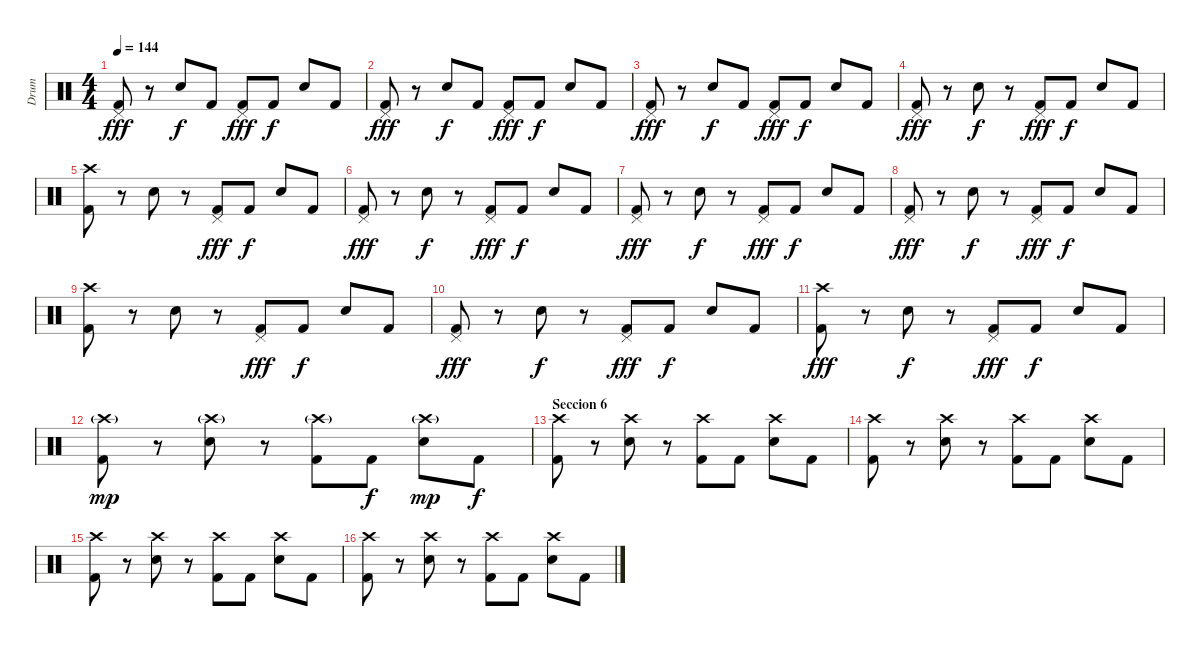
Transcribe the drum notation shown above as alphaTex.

\track ("Drum" "Drum") {instrument percussion}
\staff {score}
\articulation defaults
\ts (4 4)
\tempo 144
\clef neutral
\ks c
("Pedal Hi-Hat (hit)" "Kick (hit) 2").8{dy fff} r.8 "Electric Snare (hit)".8{dy f} "Kick (hit) 2".8 ("Pedal Hi-Hat (hit)" "Kick (hit) 2").8{dy fff} "Kick (hit) 2".8{dy f} "Electric Snare (hit)".8 "Kick (hit) 2".8 |
("Pedal Hi-Hat (hit)" "Kick (hit) 2").8{dy fff} r.8 "Electric Snare (hit)".8{dy f} "Kick (hit) 2".8 ("Pedal Hi-Hat (hit)" "Kick (hit) 2").8{dy fff} "Kick (hit) 2".8{dy f} "Electric Snare (hit)".8 "Kick (hit) 2".8 |
("Pedal Hi-Hat (hit)" "Kick (hit) 2").8{dy fff} r.8 "Electric Snare (hit)".8{dy f} "Kick (hit) 2".8 ("Pedal Hi-Hat (hit)" "Kick (hit) 2").8{dy fff} "Kick (hit) 2".8{dy f} "Electric Snare (hit)".8 "Kick (hit) 2".8 |
("Pedal Hi-Hat (hit)" "Kick (hit) 2").8{dy fff} r.8 "Electric Snare (hit)".8{dy f} r.8 ("Pedal Hi-Hat (hit)" "Kick (hit) 2").8{dy fff} "Kick (hit) 2".8{dy f} "Electric Snare (hit)".8 "Kick (hit) 2".8 |
("Crash high (hit)" "Kick (hit) 2").8 r.8 "Electric Snare (hit)".8 r.8 ("Pedal Hi-Hat (hit)" "Kick (hit) 2").8{dy fff} "Kick (hit) 2".8{dy f} "Electric Snare (hit)".8 "Kick (hit) 2".8 |
("Pedal Hi-Hat (hit)" "Kick (hit) 2").8{dy fff} r.8 "Electric Snare (hit)".8{dy f} r.8 ("Pedal Hi-Hat (hit)" "Kick (hit) 2").8{dy fff} "Kick (hit) 2".8{dy f} "Electric Snare (hit)".8 "Kick (hit) 2".8 |
("Pedal Hi-Hat (hit)" "Kick (hit) 2").8{dy fff} r.8 "Electric Snare (hit)".8{dy f} r.8 ("Pedal Hi-Hat (hit)" "Kick (hit) 2").8{dy fff} "Kick (hit) 2".8{dy f} "Electric Snare (hit)".8 "Kick (hit) 2".8 |
("Pedal Hi-Hat (hit)" "Kick (hit) 2").8{dy fff} r.8 "Electric Snare (hit)".8{dy f} r.8 ("Pedal Hi-Hat (hit)" "Kick (hit) 2").8{dy fff} "Kick (hit) 2".8{dy f} "Electric Snare (hit)".8 "Kick (hit) 2".8 |
("Crash high (hit)" "Kick (hit) 2").8 r.8 "Electric Snare (hit)".8 r.8 ("Pedal Hi-Hat (hit)" "Kick (hit) 2").8{dy fff} "Kick (hit) 2".8{dy f} "Electric Snare (hit)".8 "Kick (hit) 2".8 |
("Pedal Hi-Hat (hit)" "Kick (hit) 2").8{dy fff} r.8 "Electric Snare (hit)".8{dy f} r.8 ("Pedal Hi-Hat (hit)" "Kick (hit) 2").8{dy fff} "Kick (hit) 2".8{dy f} "Electric Snare (hit)".8 "Kick (hit) 2".8 |
("Crash high (hit)" "Kick (hit) 2").8{dy fff} r.8 "Electric Snare (hit)".8{dy f} r.8 ("Pedal Hi-Hat (hit)" "Kick (hit) 2").8{dy fff} "Kick (hit) 2".8{dy f} "Electric Snare (hit)".8 "Kick (hit) 2".8 |
("Crash high (hit)"{g} "Kick (hit) 2").8{dy mp} r.8 ("Crash high (hit)"{g} "Electric Snare (hit)").8 r.8 ("Crash high (hit)"{g} "Kick (hit) 2").8 "Kick (hit) 2".8{dy f} ("Crash high (hit)"{g} "Electric Snare (hit)").8{dy mp} "Kick (hit) 2".8{dy f} |
\section ("" "Seccion 6")
("Crash high (hit)" "Kick (hit) 2").8 r.8 ("Crash high (hit)" "Electric Snare (hit)").8 r.8 ("Crash high (hit)" "Kick (hit) 2").8 "Kick (hit) 2".8 ("Crash high (hit)" "Electric Snare (hit)").8 "Kick (hit) 2".8 |
("Crash high (hit)" "Kick (hit) 2").8 r.8 ("Crash high (hit)" "Electric Snare (hit)").8 r.8 ("Crash high (hit)" "Kick (hit) 2").8 "Kick (hit) 2".8 ("Crash high (hit)" "Electric Snare (hit)").8 "Kick (hit) 2".8 |
("Crash high (hit)" "Kick (hit) 2").8 r.8 ("Crash high (hit)" "Electric Snare (hit)").8 r.8 ("Crash high (hit)" "Kick (hit) 2").8 "Kick (hit) 2".8 ("Crash high (hit)" "Electric Snare (hit)").8 "Kick (hit) 2".8 |
("Crash high (hit)" "Kick (hit) 2").8 r.8 ("Crash high (hit)" "Electric Snare (hit)").8 r.8 ("Crash high (hit)" "Kick (hit) 2").8 "Kick (hit) 2".8 ("Crash high (hit)" "Electric Snare (hit)").8 "Kick (hit) 2".8
